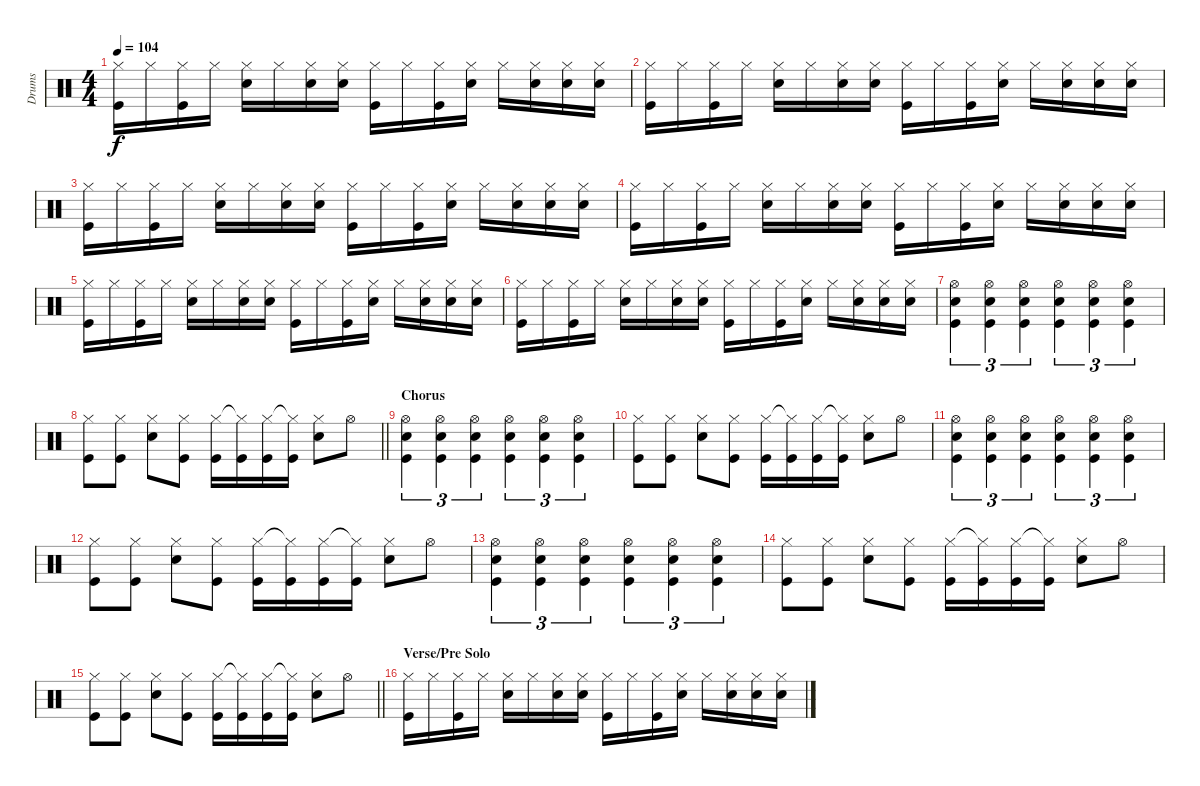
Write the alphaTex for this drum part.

\track ("Drums" "Drums") {instrument percussion}
\staff {score}
\articulation defaults
\ts (4 4)
\tempo 104
\clef neutral
\ks c
("Hi-Hat (closed)" "Kick (hit)").16{dy f} "Hi-Hat (closed)".16 ("Hi-Hat (closed)" "Kick (hit)").16 "Hi-Hat (closed)".16 ("Hi-Hat (closed)" "Electric Snare (hit)").16 "Hi-Hat (closed)".16 ("Hi-Hat (closed)" "Electric Snare (hit)").16 ("Hi-Hat (closed)" "Electric Snare (hit)").16 ("Hi-Hat (closed)" "Kick (hit)").16 "Hi-Hat (closed)".16 ("Hi-Hat (closed)" "Kick (hit)").16 ("Hi-Hat (closed)" "Electric Snare (hit)").16 "Hi-Hat (closed)".16 ("Hi-Hat (closed)" "Electric Snare (hit)").16 ("Hi-Hat (closed)" "Electric Snare (hit)").16 ("Hi-Hat (closed)" "Electric Snare (hit)").16 |
("Hi-Hat (closed)" "Kick (hit)").16 "Hi-Hat (closed)".16 ("Hi-Hat (closed)" "Kick (hit)").16 "Hi-Hat (closed)".16 ("Hi-Hat (closed)" "Electric Snare (hit)").16 "Hi-Hat (closed)".16 ("Hi-Hat (closed)" "Electric Snare (hit)").16 ("Hi-Hat (closed)" "Electric Snare (hit)").16 ("Hi-Hat (closed)" "Kick (hit)").16 "Hi-Hat (closed)".16 ("Hi-Hat (closed)" "Kick (hit)").16 ("Hi-Hat (closed)" "Electric Snare (hit)").16 "Hi-Hat (closed)".16 ("Hi-Hat (closed)" "Electric Snare (hit)").16 ("Hi-Hat (closed)" "Electric Snare (hit)").16 ("Hi-Hat (closed)" "Electric Snare (hit)").16 |
("Hi-Hat (closed)" "Kick (hit)").16 "Hi-Hat (closed)".16 ("Hi-Hat (closed)" "Kick (hit)").16 "Hi-Hat (closed)".16 ("Hi-Hat (closed)" "Electric Snare (hit)").16 "Hi-Hat (closed)".16 ("Hi-Hat (closed)" "Electric Snare (hit)").16 ("Hi-Hat (closed)" "Electric Snare (hit)").16 ("Hi-Hat (closed)" "Kick (hit)").16 "Hi-Hat (closed)".16 ("Hi-Hat (closed)" "Kick (hit)").16 ("Hi-Hat (closed)" "Electric Snare (hit)").16 "Hi-Hat (closed)".16 ("Hi-Hat (closed)" "Electric Snare (hit)").16 ("Hi-Hat (closed)" "Electric Snare (hit)").16 ("Hi-Hat (closed)" "Electric Snare (hit)").16 |
("Hi-Hat (closed)" "Kick (hit)").16 "Hi-Hat (closed)".16 ("Hi-Hat (closed)" "Kick (hit)").16 "Hi-Hat (closed)".16 ("Hi-Hat (closed)" "Electric Snare (hit)").16 "Hi-Hat (closed)".16 ("Hi-Hat (closed)" "Electric Snare (hit)").16 ("Hi-Hat (closed)" "Electric Snare (hit)").16 ("Hi-Hat (closed)" "Kick (hit)").16 "Hi-Hat (closed)".16 ("Hi-Hat (closed)" "Kick (hit)").16 ("Hi-Hat (closed)" "Electric Snare (hit)").16 "Hi-Hat (closed)".16 ("Hi-Hat (closed)" "Electric Snare (hit)").16 ("Hi-Hat (closed)" "Electric Snare (hit)").16 ("Hi-Hat (closed)" "Electric Snare (hit)").16 |
("Hi-Hat (closed)" "Kick (hit)").16 "Hi-Hat (closed)".16 ("Hi-Hat (closed)" "Kick (hit)").16 "Hi-Hat (closed)".16 ("Hi-Hat (closed)" "Electric Snare (hit)").16 "Hi-Hat (closed)".16 ("Hi-Hat (closed)" "Electric Snare (hit)").16 ("Hi-Hat (closed)" "Electric Snare (hit)").16 ("Hi-Hat (closed)" "Kick (hit)").16 "Hi-Hat (closed)".16 ("Hi-Hat (closed)" "Kick (hit)").16 ("Hi-Hat (closed)" "Electric Snare (hit)").16 "Hi-Hat (closed)".16 ("Hi-Hat (closed)" "Electric Snare (hit)").16 ("Hi-Hat (closed)" "Electric Snare (hit)").16 ("Hi-Hat (closed)" "Electric Snare (hit)").16 |
("Hi-Hat (closed)" "Kick (hit)").16 "Hi-Hat (closed)".16 ("Hi-Hat (closed)" "Kick (hit)").16 "Hi-Hat (closed)".16 ("Hi-Hat (closed)" "Electric Snare (hit)").16 "Hi-Hat (closed)".16 ("Hi-Hat (closed)" "Electric Snare (hit)").16 ("Hi-Hat (closed)" "Electric Snare (hit)").16 ("Hi-Hat (closed)" "Kick (hit)").16 "Hi-Hat (closed)".16 ("Hi-Hat (closed)" "Kick (hit)").16 ("Hi-Hat (closed)" "Electric Snare (hit)").16 "Hi-Hat (closed)".16 ("Hi-Hat (closed)" "Electric Snare (hit)").16 ("Hi-Hat (closed)" "Electric Snare (hit)").16 ("Hi-Hat (closed)" "Electric Snare (hit)").16 |
("Hi-Hat (open)" "Electric Snare (hit)" "Kick (hit)").4{tu (3 2)} ("Hi-Hat (open)" "Electric Snare (hit)" "Kick (hit)").4{tu (3 2)} ("Hi-Hat (open)" "Electric Snare (hit)" "Kick (hit)").4{tu (3 2)} ("Hi-Hat (open)" "Electric Snare (hit)" "Kick (hit)").4{tu (3 2)} ("Hi-Hat (open)" "Electric Snare (hit)" "Kick (hit)").4{tu (3 2)} ("Hi-Hat (open)" "Electric Snare (hit)" "Kick (hit)").4{tu (3 2)} |
\barLineRight lightlight
("Hi-Hat (closed)" "Kick (hit)").8 ("Hi-Hat (closed)" "Kick (hit)").8 ("Hi-Hat (closed)" "Electric Snare (hit)").8 ("Hi-Hat (closed)" "Kick (hit)").8 ("Hi-Hat (closed)" "Kick (hit)").16 ("Hi-Hat (closed)"{t} "Kick (hit)").16 ("Hi-Hat (closed)" "Kick (hit)").16 ("Hi-Hat (closed)"{t} "Kick (hit)").16 ("Hi-Hat (closed)" "Electric Snare (hit)").8 "Hi-Hat (open)".8 |
\section ("" "Chorus")
("Hi-Hat (open)" "Electric Snare (hit)" "Kick (hit)").4{tu (3 2)} ("Hi-Hat (open)" "Electric Snare (hit)" "Kick (hit)").4{tu (3 2)} ("Hi-Hat (open)" "Electric Snare (hit)" "Kick (hit)").4{tu (3 2)} ("Hi-Hat (open)" "Electric Snare (hit)" "Kick (hit)").4{tu (3 2)} ("Hi-Hat (open)" "Electric Snare (hit)" "Kick (hit)").4{tu (3 2)} ("Hi-Hat (open)" "Electric Snare (hit)" "Kick (hit)").4{tu (3 2)} |
("Hi-Hat (closed)" "Kick (hit)").8 ("Hi-Hat (closed)" "Kick (hit)").8 ("Hi-Hat (closed)" "Electric Snare (hit)").8 ("Hi-Hat (closed)" "Kick (hit)").8 ("Hi-Hat (closed)" "Kick (hit)").16 ("Hi-Hat (closed)"{t} "Kick (hit)").16 ("Hi-Hat (closed)" "Kick (hit)").16 ("Hi-Hat (closed)"{t} "Kick (hit)").16 ("Hi-Hat (closed)" "Electric Snare (hit)").8 "Hi-Hat (open)".8 |
("Hi-Hat (open)" "Electric Snare (hit)" "Kick (hit)").4{tu (3 2)} ("Hi-Hat (open)" "Electric Snare (hit)" "Kick (hit)").4{tu (3 2)} ("Hi-Hat (open)" "Electric Snare (hit)" "Kick (hit)").4{tu (3 2)} ("Hi-Hat (open)" "Electric Snare (hit)" "Kick (hit)").4{tu (3 2)} ("Hi-Hat (open)" "Electric Snare (hit)" "Kick (hit)").4{tu (3 2)} ("Hi-Hat (open)" "Electric Snare (hit)" "Kick (hit)").4{tu (3 2)} |
("Hi-Hat (closed)" "Kick (hit)").8 ("Hi-Hat (closed)" "Kick (hit)").8 ("Hi-Hat (closed)" "Electric Snare (hit)").8 ("Hi-Hat (closed)" "Kick (hit)").8 ("Hi-Hat (closed)" "Kick (hit)").16 ("Hi-Hat (closed)"{t} "Kick (hit)").16 ("Hi-Hat (closed)" "Kick (hit)").16 ("Hi-Hat (closed)"{t} "Kick (hit)").16 ("Hi-Hat (closed)" "Electric Snare (hit)").8 "Hi-Hat (open)".8 |
("Hi-Hat (open)" "Electric Snare (hit)" "Kick (hit)").4{tu (3 2)} ("Hi-Hat (open)" "Electric Snare (hit)" "Kick (hit)").4{tu (3 2)} ("Hi-Hat (open)" "Electric Snare (hit)" "Kick (hit)").4{tu (3 2)} ("Hi-Hat (open)" "Electric Snare (hit)" "Kick (hit)").4{tu (3 2)} ("Hi-Hat (open)" "Electric Snare (hit)" "Kick (hit)").4{tu (3 2)} ("Hi-Hat (open)" "Electric Snare (hit)" "Kick (hit)").4{tu (3 2)} |
("Hi-Hat (closed)" "Kick (hit)").8 ("Hi-Hat (closed)" "Kick (hit)").8 ("Hi-Hat (closed)" "Electric Snare (hit)").8 ("Hi-Hat (closed)" "Kick (hit)").8 ("Hi-Hat (closed)" "Kick (hit)").16 ("Hi-Hat (closed)"{t} "Kick (hit)").16 ("Hi-Hat (closed)" "Kick (hit)").16 ("Hi-Hat (closed)"{t} "Kick (hit)").16 ("Hi-Hat (closed)" "Electric Snare (hit)").8 "Hi-Hat (open)".8 |
\barLineRight lightlight
("Hi-Hat (closed)" "Kick (hit)").8 ("Hi-Hat (closed)" "Kick (hit)").8 ("Hi-Hat (closed)" "Electric Snare (hit)").8 ("Hi-Hat (closed)" "Kick (hit)").8 ("Hi-Hat (closed)" "Kick (hit)").16 ("Hi-Hat (closed)"{t} "Kick (hit)").16 ("Hi-Hat (closed)" "Kick (hit)").16 ("Hi-Hat (closed)"{t} "Kick (hit)").16 ("Hi-Hat (closed)" "Electric Snare (hit)").8 "Hi-Hat (open)".8 |
\section ("" "Verse/Pre Solo")
("Hi-Hat (closed)" "Kick (hit)").16 "Hi-Hat (closed)".16 ("Hi-Hat (closed)" "Kick (hit)").16 "Hi-Hat (closed)".16 ("Hi-Hat (closed)" "Electric Snare (hit)").16 "Hi-Hat (closed)".16 ("Hi-Hat (closed)" "Electric Snare (hit)").16 ("Hi-Hat (closed)" "Electric Snare (hit)").16 ("Hi-Hat (closed)" "Kick (hit)").16 "Hi-Hat (closed)".16 ("Hi-Hat (closed)" "Kick (hit)").16 ("Hi-Hat (closed)" "Electric Snare (hit)").16 "Hi-Hat (closed)".16 ("Hi-Hat (closed)" "Electric Snare (hit)").16 ("Hi-Hat (closed)" "Electric Snare (hit)").16 ("Hi-Hat (closed)" "Electric Snare (hit)").16
